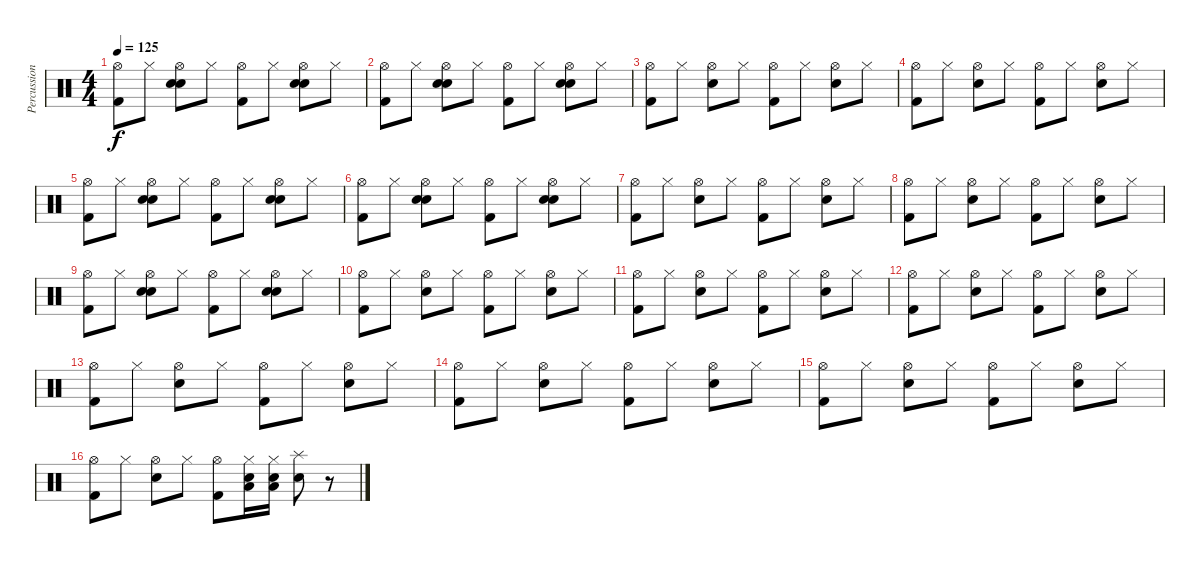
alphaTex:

\track ("Percussions" "Percussion") {instrument percussion}
\staff {score}
\articulation defaults
\ts (4 4)
\tempo 125
\clef neutral
\ks c
("Hi-Hat (open)" "Kick (hit) 2").8{dy f} "Hi-Hat (closed)".8 ("Hi-Hat (open)" "Electric Snare (hit)" "Snare (hit) 2").8 "Hi-Hat (closed)".8 ("Hi-Hat (open)" "Kick (hit) 2").8 "Hi-Hat (closed)".8 ("Hi-Hat (open)" "Electric Snare (hit)" "Snare (hit) 2").8 "Hi-Hat (closed)".8 |
("Hi-Hat (open)" "Kick (hit) 2").8 "Hi-Hat (closed)".8 ("Hi-Hat (open)" "Electric Snare (hit)" "Snare (hit) 2").8 "Hi-Hat (closed)".8 ("Hi-Hat (open)" "Kick (hit) 2").8 "Hi-Hat (closed)".8 ("Hi-Hat (open)" "Electric Snare (hit)" "Snare (hit) 2").8 "Hi-Hat (closed)".8 |
("Hi-Hat (open)" "Kick (hit) 2").8 "Hi-Hat (closed)".8 ("Hi-Hat (open)" "Snare (hit) 2").8 "Hi-Hat (closed)".8 ("Hi-Hat (open)" "Kick (hit) 2").8 "Hi-Hat (closed)".8 ("Hi-Hat (open)" "Snare (hit) 2").8 "Hi-Hat (closed)".8 |
("Hi-Hat (open)" "Kick (hit) 2").8 "Hi-Hat (closed)".8 ("Hi-Hat (open)" "Snare (hit) 2").8 "Hi-Hat (closed)".8 ("Hi-Hat (open)" "Kick (hit) 2").8 "Hi-Hat (closed)".8 ("Hi-Hat (open)" "Snare (hit) 2").8 "Hi-Hat (closed)".8 |
("Hi-Hat (open)" "Kick (hit) 2").8 "Hi-Hat (closed)".8 ("Hi-Hat (open)" "Electric Snare (hit)" "Snare (hit) 2").8 "Hi-Hat (closed)".8 ("Hi-Hat (open)" "Kick (hit) 2").8 "Hi-Hat (closed)".8 ("Hi-Hat (open)" "Electric Snare (hit)" "Snare (hit) 2").8 "Hi-Hat (closed)".8 |
("Hi-Hat (open)" "Kick (hit) 2").8 "Hi-Hat (closed)".8 ("Hi-Hat (open)" "Electric Snare (hit)" "Snare (hit) 2").8 "Hi-Hat (closed)".8 ("Hi-Hat (open)" "Kick (hit) 2").8 "Hi-Hat (closed)".8 ("Hi-Hat (open)" "Electric Snare (hit)" "Snare (hit) 2").8 "Hi-Hat (closed)".8 |
("Hi-Hat (open)" "Kick (hit) 2").8 "Hi-Hat (closed)".8 ("Hi-Hat (open)" "Snare (hit) 2").8 "Hi-Hat (closed)".8 ("Hi-Hat (open)" "Kick (hit) 2").8 "Hi-Hat (closed)".8 ("Hi-Hat (open)" "Snare (hit) 2").8 "Hi-Hat (closed)".8 |
("Hi-Hat (open)" "Kick (hit) 2").8 "Hi-Hat (closed)".8 ("Hi-Hat (open)" "Snare (hit) 2").8 "Hi-Hat (closed)".8 ("Hi-Hat (open)" "Kick (hit) 2").8 "Hi-Hat (closed)".8 ("Hi-Hat (open)" "Snare (hit) 2").8 "Hi-Hat (closed)".8 |
("Hi-Hat (open)" "Kick (hit) 2").8 "Hi-Hat (closed)".8 ("Hi-Hat (open)" "Electric Snare (hit)" "Snare (hit) 2").8 "Hi-Hat (closed)".8 ("Hi-Hat (open)" "Kick (hit) 2").8 "Hi-Hat (closed)".8 ("Hi-Hat (open)" "Electric Snare (hit)" "Snare (hit) 2").8 "Hi-Hat (closed)".8 |
("Hi-Hat (open)" "Kick (hit) 2").8 "Hi-Hat (closed)".8 ("Hi-Hat (open)" "Snare (hit) 2").8 "Hi-Hat (closed)".8 ("Hi-Hat (open)" "Kick (hit) 2").8 "Hi-Hat (closed)".8 ("Hi-Hat (open)" "Snare (hit) 2").8 "Hi-Hat (closed)".8 |
("Hi-Hat (open)" "Kick (hit) 2").8 "Hi-Hat (closed)".8 ("Hi-Hat (open)" "Snare (hit) 2").8 "Hi-Hat (closed)".8 ("Hi-Hat (open)" "Kick (hit) 2").8 "Hi-Hat (closed)".8 ("Hi-Hat (open)" "Snare (hit) 2").8 "Hi-Hat (closed)".8 |
("Hi-Hat (open)" "Kick (hit) 2").8 "Hi-Hat (closed)".8 ("Hi-Hat (open)" "Snare (hit) 2").8 "Hi-Hat (closed)".8 ("Hi-Hat (open)" "Kick (hit) 2").8 "Hi-Hat (closed)".8 ("Hi-Hat (open)" "Snare (hit) 2").8 "Hi-Hat (closed)".8 |
("Hi-Hat (open)" "Kick (hit) 2").8 "Hi-Hat (closed)".8 ("Hi-Hat (open)" "Snare (hit) 2").8 "Hi-Hat (closed)".8 ("Hi-Hat (open)" "Kick (hit) 2").8 "Hi-Hat (closed)".8 ("Hi-Hat (open)" "Snare (hit) 2").8 "Hi-Hat (closed)".8 |
("Hi-Hat (open)" "Kick (hit) 2").8 "Hi-Hat (closed)".8 ("Hi-Hat (open)" "Snare (hit) 2").8 "Hi-Hat (closed)".8 ("Hi-Hat (open)" "Kick (hit) 2").8 "Hi-Hat (closed)".8 ("Hi-Hat (open)" "Snare (hit) 2").8 "Hi-Hat (closed)".8 |
("Hi-Hat (open)" "Kick (hit) 2").8 "Hi-Hat (closed)".8 ("Hi-Hat (open)" "Snare (hit) 2").8 "Hi-Hat (closed)".8 ("Hi-Hat (open)" "Kick (hit) 2").8 "Hi-Hat (closed)".8 ("Hi-Hat (open)" "Snare (hit) 2").8 "Hi-Hat (closed)".8 |
("Hi-Hat (open)" "Kick (hit) 2").8 "Hi-Hat (closed)".8 ("Hi-Hat (open)" "Snare (hit) 2").8 "Hi-Hat (closed)".8 ("Hi-Hat (open)" "Kick (hit) 2").8 ("Hi-Hat (closed)" "Low Tom (hit)" "Snare (hit) 2").16 ("Hi-Hat (closed)" "Low Tom (hit)" "Snare (hit) 2").16 ("Splash (hit)" "Snare (hit) 2").8 r.8
